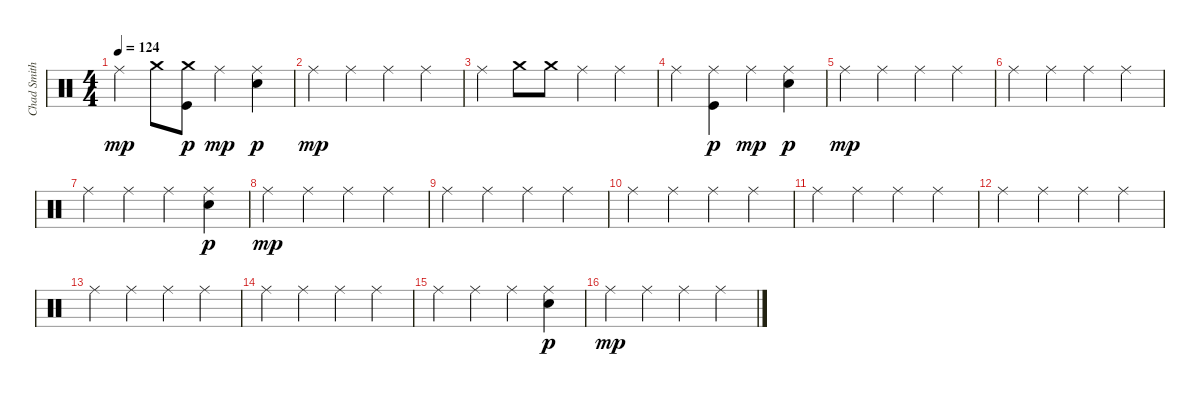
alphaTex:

\track ("Chad Smith" "Chad Smith") {instrument percussion}
\staff {score}
\articulation defaults
\ts (4 4)
\tempo 124
\clef neutral
\ks c "Ride (middle)".4{dy mp} "Crash medium (hit)".8
("Crash medium (hit)" "Kick (hit)").8{dy p} "Ride (middle)".4{dy mp} ("Ride (middle)" "Electric Snare (hit)").4{dy p} |
"Ride (middle)".4{dy mp} "Ride (middle)".4 "Ride (middle)".4 "Ride (middle)".4 |
"Ride (middle)".4 "Crash medium (hit)".8 "Crash medium (hit)".8 "Ride (middle)".4 "Ride (middle)".4 |
"Ride (middle)".4 ("Ride (middle)" "Kick (hit)").4{dy p} "Ride (middle)".4{dy mp} ("Ride (middle)" "Electric Snare (hit)").4{dy p} |
"Ride (middle)".4{dy mp} "Ride (middle)".4 "Ride (middle)".4 "Ride (middle)".4 |
"Ride (middle)".4 "Ride (middle)".4 "Ride (middle)".4 "Ride (middle)".4 |
"Ride (middle)".4 "Ride (middle)".4 "Ride (middle)".4 ("Ride (middle)" "Electric Snare (hit)").4{dy p} |
"Ride (middle)".4{dy mp} "Ride (middle)".4 "Ride (middle)".4 "Ride (middle)".4 |
"Ride (middle)".4 "Ride (middle)".4 "Ride (middle)".4 "Ride (middle)".4 |
"Ride (middle)".4 "Ride (middle)".4 "Ride (middle)".4 "Ride (middle)".4 |
"Ride (middle)".4 "Ride (middle)".4 "Ride (middle)".4 "Ride (middle)".4 |
"Ride (middle)".4 "Ride (middle)".4 "Ride (middle)".4 "Ride (middle)".4 |
"Ride (middle)".4 "Ride (middle)".4 "Ride (middle)".4 "Ride (middle)".4 |
"Ride (middle)".4 "Ride (middle)".4 "Ride (middle)".4 "Ride (middle)".4 |
"Ride (middle)".4 "Ride (middle)".4 "Ride (middle)".4 ("Ride (middle)" "Electric Snare (hit)").4{dy p} |
"Ride (middle)".4{dy mp} "Ride (middle)".4 "Ride (middle)".4 "Ride (middle)".4
